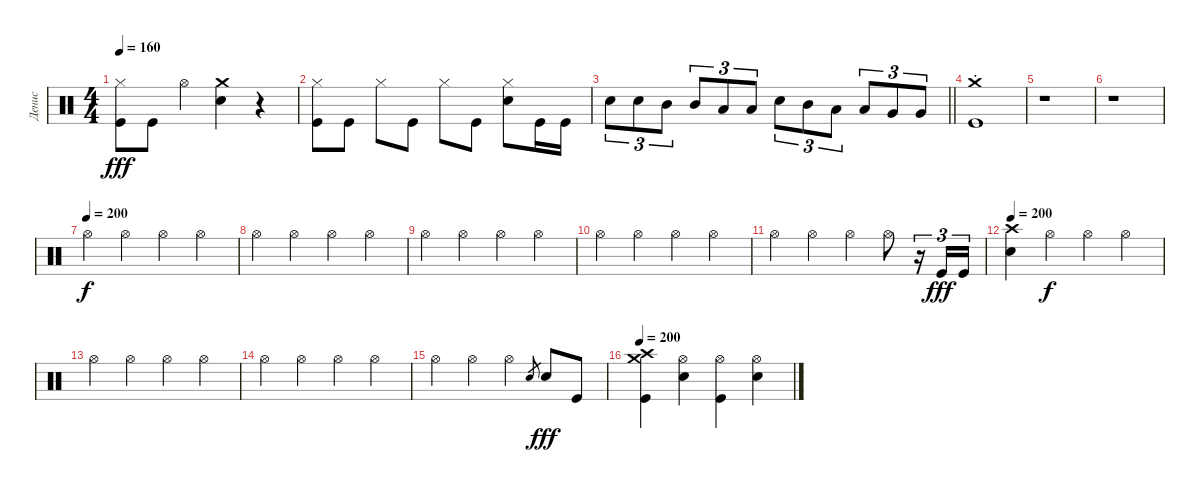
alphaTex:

\track ("Денис" "Денис") {instrument percussion}
\staff {score}
\articulation defaults
\ts (4 4)
\tempo 160
\clef neutral
\ks c
("Kick (hit)" "Hi-Hat (closed)").8{dy fff} "Kick (hit)".8 "Hi-Hat (open)".4 ("Electric Snare (hit)" "Crash medium (hit)").4 r.4 |
("Kick (hit)" "Hi-Hat (closed)").8 "Kick (hit)".8 "Hi-Hat (closed)".8 "Kick (hit)".8 "Hi-Hat (closed)".8 "Kick (hit)".8 ("Electric Snare (hit)" "Hi-Hat (closed)").8 "Kick (hit)".16 "Kick (hit)".16 |
\barLineRight lightlight "Electric Snare (hit)".8{tu (3 2)} "Electric Snare (hit)".8{tu (3 2)} "Mid Tom (hit)".8{tu (3 2)} "Mid Tom (hit)".8{tu (3 2)} "Low Tom (hit)".8{tu (3 2)} "Low Tom (hit)".8{tu (3 2)} "Electric Snare (hit)".8{tu (3 2)} "Mid Tom (hit)".8{tu (3 2)} "Low Tom (hit)".8{tu (3 2)} "Low Tom (hit)".8{tu (3 2)} "Very Low Tom (hit)".8{tu (3 2)} "Very Low Tom (hit)".8{tu (3 2)}
|
("Kick (hit)" "Crash medium (hit)"{st}).1 |
r.1 |
r.1 |
\tempo (200)
"Hi-Hat (open)".4{dy f} "Hi-Hat (open)".4 "Hi-Hat (open)".4 "Hi-Hat (open)".4 |
"Hi-Hat (open)".4 "Hi-Hat (open)".4 "Hi-Hat (open)".4 "Hi-Hat (open)".4 |
"Hi-Hat (open)".4 "Hi-Hat (open)".4 "Hi-Hat (open)".4 "Hi-Hat (open)".4 |
"Hi-Hat (open)".4 "Hi-Hat (open)".4 "Hi-Hat (open)".4 "Hi-Hat (open)".4 |
"Hi-Hat (open)".4 "Hi-Hat (open)".4 "Hi-Hat (open)".4 "Hi-Hat (open)".8 r.16{tu (3 2)} "Kick (hit)".16{tu (3 2) dy fff} "Kick (hit)".16{tu (3 2)} |
\tempo 200
("Electric Snare (hit)" "Crash high (hit)").4 "Hi-Hat (open)".4{dy f} "Hi-Hat (open)".4 "Hi-Hat (open)".4 |
"Hi-Hat (open)".4 "Hi-Hat (open)".4 "Hi-Hat (open)".4 "Hi-Hat (open)".4 |
"Hi-Hat (open)".4 "Hi-Hat (open)".4 "Hi-Hat (open)".4 "Hi-Hat (open)".4 |
"Hi-Hat (open)".4 "Hi-Hat (open)".4 "Hi-Hat (open)".4 "Electric Snare (hit)".8{gr} "Electric Snare (hit)".8{dy fff} "Kick (hit)".8 |
\tempo 200
("Kick (hit)" "Crash high (hit)" "Crash medium (hit)").4 ("Electric Snare (hit)" "Hi-Hat (open)").4 ("Kick (hit)" "Hi-Hat (open)").4 ("Electric Snare (hit)" "Hi-Hat (open)").4
